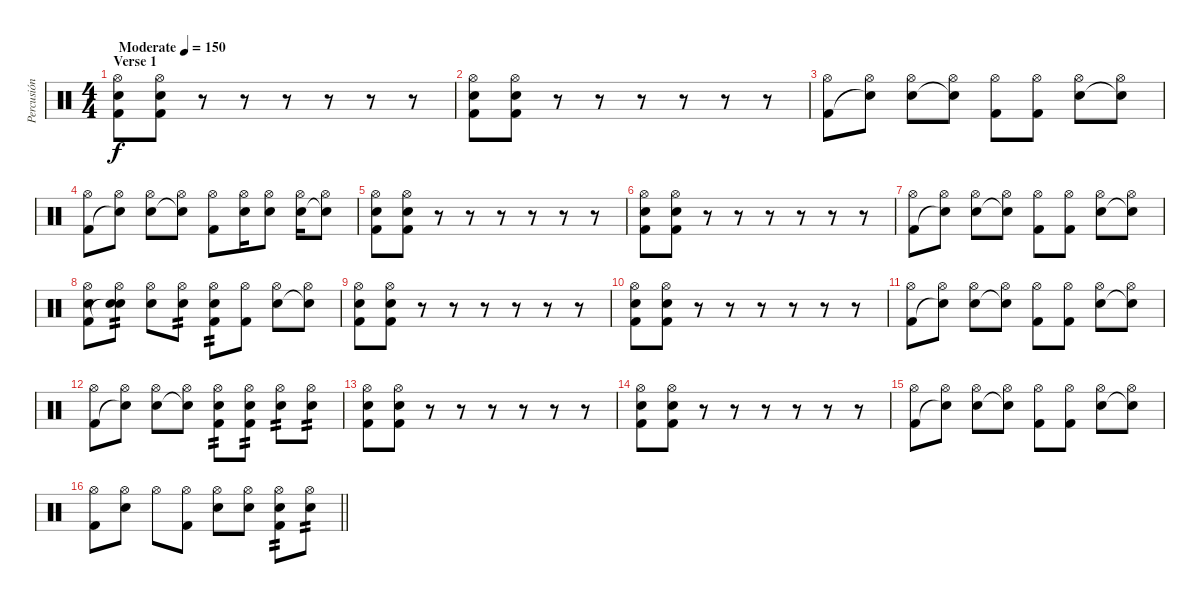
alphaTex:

\track ("Percusión" "Percusión") {instrument percussion}
\staff {score}
\articulation defaults
\ts (4 4)
\section ("" "Verse 1")
\tempo (150 "Moderate")
\clef neutral
\ks c
("Hi-Hat (open)" "Electric Snare (hit)" "Kick (hit) 2").8{dy f} ("Hi-Hat (open)" "Electric Snare (hit)" "Kick (hit) 2").8 r.8 r.8 r.8 r.8 r.8 r.8 |
("Hi-Hat (open)" "Electric Snare (hit)" "Kick (hit) 2").8 ("Hi-Hat (open)" "Electric Snare (hit)" "Kick (hit) 2").8 r.8 r.8 r.8 r.8 r.8 r.8 |
("Hi-Hat (open)" "Kick (hit) 2").8 ("Hi-Hat (open)" "Snare (hit)"{t}).8 ("Hi-Hat (open)" "Electric Snare (hit)").8 ("Hi-Hat (open)" "Snare (hit)"{t}).8 ("Hi-Hat (open)" "Kick (hit) 2").8 ("Hi-Hat (open)" "Kick (hit) 2").8 ("Hi-Hat (open)" "Electric Snare (hit)").8 ("Hi-Hat (open)" "Snare (hit)"{t}).8 |
("Hi-Hat (open)" "Kick (hit) 2").8 ("Hi-Hat (open)" "Snare (hit)"{t}).8 ("Hi-Hat (open)" "Electric Snare (hit)").8 ("Hi-Hat (open)" "Snare (hit)"{t}).8 ("Hi-Hat (open)" "Kick (hit) 2").8 ("Hi-Hat (open)" "Electric Snare (hit)").16 ("Hi-Hat (open)" "Electric Snare (hit)").8 ("Hi-Hat (open)" "Electric Snare (hit)").16 ("Hi-Hat (open)" "Snare (hit)"{t}).8 |
("Hi-Hat (open)" "Electric Snare (hit)" "Kick (hit) 2").8 ("Hi-Hat (open)" "Electric Snare (hit)" "Kick (hit) 2").8 r.8 r.8 r.8 r.8 r.8 r.8 |
("Hi-Hat (open)" "Electric Snare (hit)" "Kick (hit) 2").8 ("Hi-Hat (open)" "Electric Snare (hit)" "Kick (hit) 2").8 r.8 r.8 r.8 r.8 r.8 r.8 |
("Hi-Hat (open)" "Kick (hit) 2").8 ("Hi-Hat (open)" "Snare (hit)"{t}).8 ("Hi-Hat (open)" "Electric Snare (hit)").8 ("Hi-Hat (open)" "Snare (hit)"{t}).8 ("Hi-Hat (open)" "Kick (hit) 2").8 ("Hi-Hat (open)" "Kick (hit) 2").8 ("Hi-Hat (open)" "Electric Snare (hit)").8 ("Hi-Hat (open)" "Snare (hit)"{t}).8 |
("Hi-Hat (open)" "Electric Snare (hit)" "Kick (hit) 2").8 ("Hi-Hat (open)" "Electric Snare (hit)" "Snare (hit)"{t}).8{tp 2} ("Hi-Hat (open)" "Electric Snare (hit)").8 ("Hi-Hat (open)" "Electric Snare (hit)").8{tp 2} ("Hi-Hat (open)" "Electric Snare (hit)" "Kick (hit) 2").8{tp 2} ("Hi-Hat (open)" "Kick (hit) 2").8 ("Hi-Hat (open)" "Electric Snare (hit)").8 ("Hi-Hat (open)" "Snare (hit)"{t}).8 |
("Hi-Hat (open)" "Electric Snare (hit)" "Kick (hit) 2").8 ("Hi-Hat (open)" "Electric Snare (hit)" "Kick (hit) 2").8 r.8 r.8 r.8 r.8 r.8 r.8 |
("Hi-Hat (open)" "Electric Snare (hit)" "Kick (hit) 2").8 ("Hi-Hat (open)" "Electric Snare (hit)" "Kick (hit) 2").8 r.8 r.8 r.8 r.8 r.8 r.8 |
("Hi-Hat (open)" "Kick (hit) 2").8 ("Hi-Hat (open)" "Snare (hit)"{t}).8 ("Hi-Hat (open)" "Electric Snare (hit)").8 ("Hi-Hat (open)" "Snare (hit)"{t}).8 ("Hi-Hat (open)" "Kick (hit) 2").8 ("Hi-Hat (open)" "Kick (hit) 2").8 ("Hi-Hat (open)" "Electric Snare (hit)").8 ("Hi-Hat (open)" "Snare (hit)"{t}).8 |
("Hi-Hat (open)" "Kick (hit) 2").8 ("Hi-Hat (open)" "Snare (hit)"{t}).8 ("Hi-Hat (open)" "Electric Snare (hit)").8 ("Hi-Hat (open)" "Snare (hit)"{t}).8 ("Hi-Hat (open)" "Electric Snare (hit)" "Kick (hit) 2").8{tp 2} ("Hi-Hat (open)" "Electric Snare (hit)" "Kick (hit) 2").8{tp 2} ("Hi-Hat (open)" "Electric Snare (hit)").8{tp 2} ("Hi-Hat (open)" "Electric Snare (hit)").8{tp 2} |
("Hi-Hat (open)" "Electric Snare (hit)" "Kick (hit) 2").8 ("Hi-Hat (open)" "Electric Snare (hit)" "Kick (hit) 2").8 r.8 r.8 r.8 r.8 r.8 r.8 |
("Hi-Hat (open)" "Electric Snare (hit)" "Kick (hit) 2").8 ("Hi-Hat (open)" "Electric Snare (hit)" "Kick (hit) 2").8 r.8 r.8 r.8 r.8 r.8 r.8 |
("Hi-Hat (open)" "Kick (hit) 2").8 ("Hi-Hat (open)" "Snare (hit)"{t}).8 ("Hi-Hat (open)" "Electric Snare (hit)").8 ("Hi-Hat (open)" "Snare (hit)"{t}).8 ("Hi-Hat (open)" "Kick (hit) 2").8 ("Hi-Hat (open)" "Kick (hit) 2").8 ("Hi-Hat (open)" "Electric Snare (hit)").8 ("Hi-Hat (open)" "Snare (hit)"{t}).8 |
\barLineRight lightlight
("Hi-Hat (open)" "Kick (hit) 2").8 ("Hi-Hat (open)" "Electric Snare (hit)").8 "Hi-Hat (open)".8 ("Hi-Hat (open)" "Kick (hit) 2").8 ("Hi-Hat (open)" "Electric Snare (hit)").8 ("Hi-Hat (open)" "Electric Snare (hit)").8 ("Hi-Hat (open)" "Electric Snare (hit)" "Kick (hit) 2").8{tp 2} ("Hi-Hat (open)" "Electric Snare (hit)").8{tp 2}
